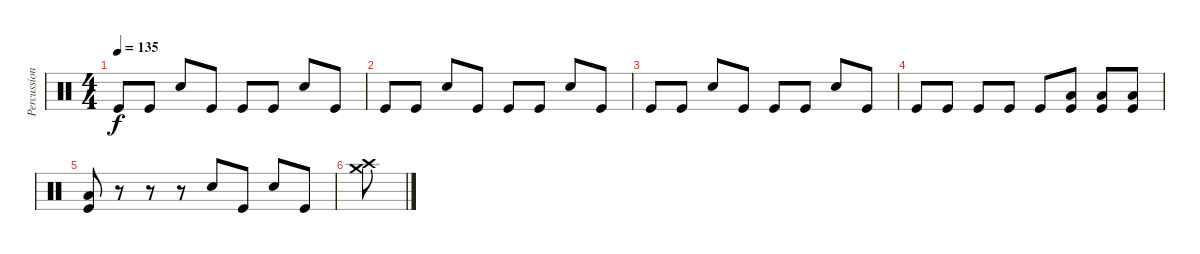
\track ("Percussions" "Percussion") {instrument percussion}
\staff {score}
\articulation defaults
\ts (4 4)
\tempo 135
\clef neutral
\ks c "Kick (hit)".8{dy f} "Kick (hit)".8 "Snare (hit) 2".8 "Kick (hit)".8 "Kick (hit)".8 "Kick (hit)".8 "Snare (hit) 2".8 "Kick (hit)".8
|
"Kick (hit)".8 "Kick (hit)".8 "Snare (hit) 2".8 "Kick (hit)".8 "Kick (hit)".8 "Kick (hit)".8 "Snare (hit) 2".8 "Kick (hit)".8 |
"Kick (hit)".8 "Kick (hit)".8 "Snare (hit) 2".8 "Kick (hit)".8 "Kick (hit)".8 "Kick (hit)".8 "Snare (hit) 2".8 "Kick (hit)".8 |
"Kick (hit)".8 "Kick (hit)".8 "Kick (hit)".8 "Kick (hit)".8 "Kick (hit)".8 ("Low Floor Tom (hit)" "Kick (hit)").8{volume 14} ("Low Floor Tom (hit)" "Kick (hit)").8{volume 15} ("Low Floor Tom (hit)" "Kick (hit)").8{volume 16} |
("Low Floor Tom (hit)" "Kick (hit)").8{volume 16} r.8 r.8 r.8 "Snare (hit) 2".8 "Kick (hit)".8 "Snare (hit) 2".8 "Kick (hit)".8 |
("Crash medium (hit)" "Crash high (hit)").8
